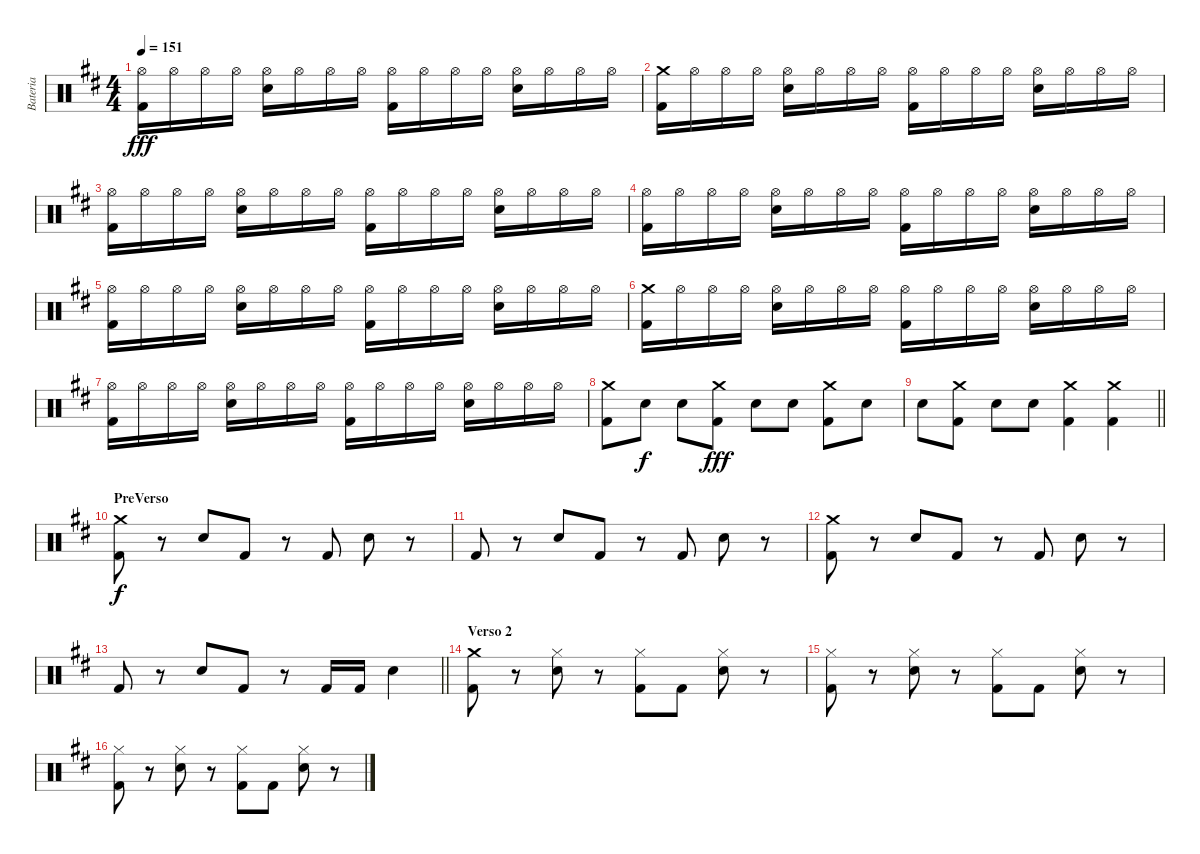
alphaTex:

\track ("Bateria " "Bateria ") {instrument percussion}
\staff {score}
\articulation defaults
\ts (4 4)
\tempo 151
\clef neutral
\ks d
("Hi-Hat (open)" "Kick (hit) 2").16{dy fff} "Hi-Hat (open)".16 "Hi-Hat (open)".16 "Hi-Hat (open)".16 ("Hi-Hat (open)" "Electric Snare (hit)").16 "Hi-Hat (open)".16 "Hi-Hat (open)".16 "Hi-Hat (open)".16 ("Hi-Hat (open)" "Kick (hit) 2").16 "Hi-Hat (open)".16 "Hi-Hat (open)".16 "Hi-Hat (open)".16 ("Hi-Hat (open)" "Electric Snare (hit)").16 "Hi-Hat (open)".16 "Hi-Hat (open)".16 "Hi-Hat (open)".16 |
("Crash medium (hit)" "Kick (hit) 2").16 "Hi-Hat (open)".16 "Hi-Hat (open)".16 "Hi-Hat (open)".16 ("Hi-Hat (open)" "Electric Snare (hit)").16 "Hi-Hat (open)".16 "Hi-Hat (open)".16 "Hi-Hat (open)".16 ("Hi-Hat (open)" "Kick (hit) 2").16 "Hi-Hat (open)".16 "Hi-Hat (open)".16 "Hi-Hat (open)".16 ("Hi-Hat (open)" "Electric Snare (hit)").16 "Hi-Hat (open)".16 "Hi-Hat (open)".16 "Hi-Hat (open)".16 |
("Hi-Hat (open)" "Kick (hit) 2").16 "Hi-Hat (open)".16 "Hi-Hat (open)".16 "Hi-Hat (open)".16 ("Hi-Hat (open)" "Electric Snare (hit)").16 "Hi-Hat (open)".16 "Hi-Hat (open)".16 "Hi-Hat (open)".16 ("Hi-Hat (open)" "Kick (hit) 2").16 "Hi-Hat (open)".16 "Hi-Hat (open)".16 "Hi-Hat (open)".16 ("Hi-Hat (open)" "Electric Snare (hit)").16 "Hi-Hat (open)".16 "Hi-Hat (open)".16 "Hi-Hat (open)".16 |
("Hi-Hat (open)" "Kick (hit) 2").16 "Hi-Hat (open)".16 "Hi-Hat (open)".16 "Hi-Hat (open)".16 ("Hi-Hat (open)" "Electric Snare (hit)").16 "Hi-Hat (open)".16 "Hi-Hat (open)".16 "Hi-Hat (open)".16 ("Hi-Hat (open)" "Kick (hit) 2").16 "Hi-Hat (open)".16 "Hi-Hat (open)".16 "Hi-Hat (open)".16 ("Hi-Hat (open)" "Electric Snare (hit)").16 "Hi-Hat (open)".16 "Hi-Hat (open)".16 "Hi-Hat (open)".16 |
("Hi-Hat (open)" "Kick (hit) 2").16 "Hi-Hat (open)".16 "Hi-Hat (open)".16 "Hi-Hat (open)".16 ("Hi-Hat (open)" "Electric Snare (hit)").16 "Hi-Hat (open)".16 "Hi-Hat (open)".16 "Hi-Hat (open)".16 ("Hi-Hat (open)" "Kick (hit) 2").16 "Hi-Hat (open)".16 "Hi-Hat (open)".16 "Hi-Hat (open)".16 ("Hi-Hat (open)" "Electric Snare (hit)").16 "Hi-Hat (open)".16 "Hi-Hat (open)".16 "Hi-Hat (open)".16 |
("Crash medium (hit)" "Kick (hit) 2").16 "Hi-Hat (open)".16 "Hi-Hat (open)".16 "Hi-Hat (open)".16 ("Hi-Hat (open)" "Electric Snare (hit)").16 "Hi-Hat (open)".16 "Hi-Hat (open)".16 "Hi-Hat (open)".16 ("Hi-Hat (open)" "Kick (hit) 2").16 "Hi-Hat (open)".16 "Hi-Hat (open)".16 "Hi-Hat (open)".16 ("Hi-Hat (open)" "Electric Snare (hit)").16 "Hi-Hat (open)".16 "Hi-Hat (open)".16 "Hi-Hat (open)".16 |
("Hi-Hat (open)" "Kick (hit) 2").16 "Hi-Hat (open)".16 "Hi-Hat (open)".16 "Hi-Hat (open)".16 ("Hi-Hat (open)" "Electric Snare (hit)").16 "Hi-Hat (open)".16 "Hi-Hat (open)".16 "Hi-Hat (open)".16 ("Hi-Hat (open)" "Kick (hit) 2").16 "Hi-Hat (open)".16 "Hi-Hat (open)".16 "Hi-Hat (open)".16 ("Hi-Hat (open)" "Electric Snare (hit)").16 "Hi-Hat (open)".16 "Hi-Hat (open)".16 "Hi-Hat (open)".16 |
("Crash medium (hit)" "Kick (hit) 2").8 "Electric Snare (hit)".8{dy f} "Electric Snare (hit)".8 ("Crash medium (hit)" "Kick (hit) 2").8{dy fff} "Electric Snare (hit)".8 "Electric Snare (hit)".8 ("Crash medium (hit)" "Kick (hit) 2").8 "Electric Snare (hit)".8 |
\barLineRight lightlight "Electric Snare (hit)".8
("Crash medium (hit)" "Kick (hit) 2").8 "Electric Snare (hit)".8 "Electric Snare (hit)".8 ("Crash medium (hit)" "Kick (hit) 2").4 ("Crash medium (hit)" "Kick (hit) 2").4 |
\section ("" "PreVerso")
("Crash medium (hit)" "Kick (hit) 2").8{dy f} r.8 "Electric Snare (hit)".8 "Kick (hit) 2".8 r.8 "Kick (hit) 2".8 "Electric Snare (hit)".8 r.8 |
"Kick (hit) 2".8 r.8 "Electric Snare (hit)".8 "Kick (hit) 2".8 r.8 "Kick (hit) 2".8 "Electric Snare (hit)".8 r.8 |
("Crash medium (hit)" "Kick (hit) 2").8 r.8 "Electric Snare (hit)".8 "Kick (hit) 2".8 r.8 "Kick (hit) 2".8 "Electric Snare (hit)".8 r.8 |
\barLineRight lightlight "Kick (hit) 2".8
r.8 "Electric Snare (hit)".8 "Kick (hit) 2".8 r.8 "Kick (hit) 2".16 "Kick (hit) 2".16 "Electric Snare (hit)".4 |
\section ("" "Verso 2")
("Crash medium (hit)" "Kick (hit) 2").8 r.8 ("Hi-Hat (closed)" "Electric Snare (hit)").8 r.8 ("Hi-Hat (closed)" "Kick (hit) 2").8 "Kick (hit) 2".8 ("Hi-Hat (closed)" "Electric Snare (hit)").8 r.8 |
("Hi-Hat (closed)" "Kick (hit) 2").8 r.8 ("Hi-Hat (closed)" "Electric Snare (hit)").8 r.8 ("Hi-Hat (closed)" "Kick (hit) 2").8 "Kick (hit) 2".8 ("Hi-Hat (closed)" "Electric Snare (hit)").8 r.8 |
("Hi-Hat (closed)" "Kick (hit) 2").8 r.8 ("Hi-Hat (closed)" "Electric Snare (hit)").8 r.8 ("Hi-Hat (closed)" "Kick (hit) 2").8 "Kick (hit) 2".8 ("Hi-Hat (closed)" "Electric Snare (hit)").8 r.8
